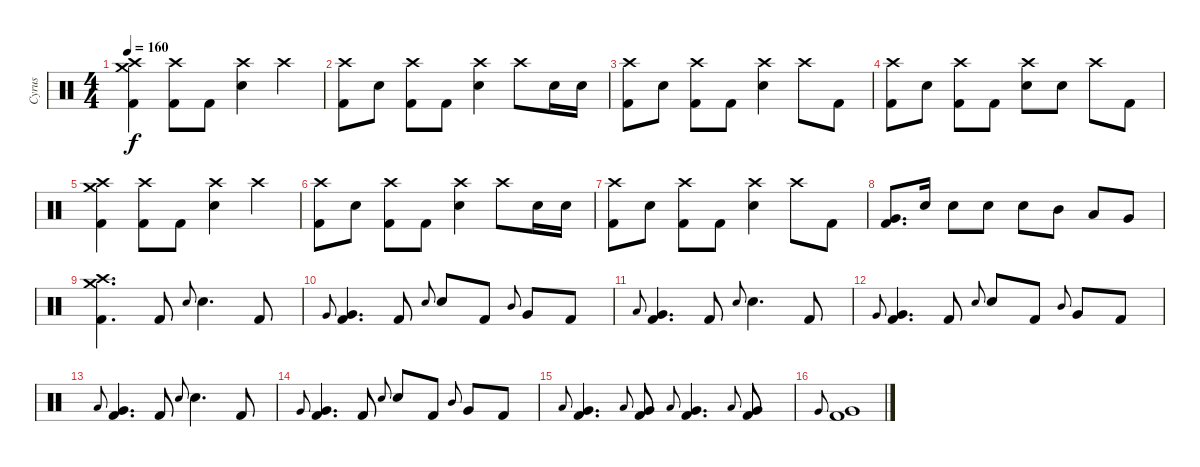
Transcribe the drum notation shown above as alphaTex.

\track ("Cyrus" "Cyrus") {instrument percussion}
\staff {score}
\articulation defaults
\ts (4 4)
\tempo 160
\clef neutral
\ks c
("Crash high (hit)" "Crash medium (hit)" "Kick (hit) 2").4{dy f} ("Crash high (hit)" "Kick (hit) 2").8 "Kick (hit) 2".8 ("Crash high (hit)" "Snare (hit) 2").4 "Crash high (hit)".4 |
("Crash high (hit)" "Kick (hit) 2").8 "Snare (hit) 2".8 ("Crash high (hit)" "Kick (hit) 2").8 "Kick (hit) 2".8 ("Crash high (hit)" "Snare (hit) 2").4 "Crash high (hit)".8 "Snare (hit) 2".16 "Snare (hit) 2".16 |
("Crash high (hit)" "Kick (hit) 2").8 "Snare (hit) 2".8 ("Crash high (hit)" "Kick (hit) 2").8 "Kick (hit) 2".8 ("Crash high (hit)" "Snare (hit) 2").4 "Crash high (hit)".8 "Kick (hit) 2".8 |
("Crash high (hit)" "Kick (hit) 2").8 "Snare (hit) 2".8 ("Crash high (hit)" "Kick (hit) 2").8 "Kick (hit) 2".8 ("Crash high (hit)" "Snare (hit) 2").8 "Snare (hit) 2".8 "Crash high (hit)".8 "Kick (hit) 2".8 |
("Crash high (hit)" "Crash medium (hit)" "Kick (hit) 2").4 ("Crash high (hit)" "Kick (hit) 2").8 "Kick (hit) 2".8 ("Crash high (hit)" "Snare (hit) 2").4 "Crash high (hit)".4 |
("Crash high (hit)" "Kick (hit) 2").8 "Snare (hit) 2".8 ("Crash high (hit)" "Kick (hit) 2").8 "Kick (hit) 2".8 ("Crash high (hit)" "Snare (hit) 2").4 "Crash high (hit)".8 "Snare (hit) 2".16 "Snare (hit) 2".16 |
("Crash high (hit)" "Kick (hit) 2").8 "Snare (hit) 2".8 ("Crash high (hit)" "Kick (hit) 2").8 "Kick (hit) 2".8 ("Crash high (hit)" "Snare (hit) 2").4 "Crash high (hit)".8 "Kick (hit) 2".8 |
("Very Low Tom (hit)" "Kick (hit) 2").8{d} "Snare (hit) 2".16 "Snare (hit) 2".8 "Snare (hit) 2".8 "Snare (hit) 2".8 "Mid Tom (hit)".8 "Low Tom (hit)".8 "Very Low Tom (hit)".8 |
("Crash high (hit)" "Crash medium (hit)" "Kick (hit) 2").4{d} "Kick (hit) 2".8 "Snare (hit) 2".8{gr onbeat} "Snare (hit) 2".4{d} "Kick (hit) 2".8 |
"Very Low Tom (hit)".8{gr onbeat} ("Very Low Tom (hit)" "Kick (hit) 2").4{d} "Kick (hit) 2".8 "Snare (hit) 2".8{gr onbeat} "Snare (hit) 2".8 "Kick (hit) 2".8 "Mid Tom (hit)".8{gr onbeat} "Very Low Tom (hit)".8 "Kick (hit) 2".8 |
"Low Tom (hit)".8{gr onbeat} ("Very Low Tom (hit)" "Kick (hit) 2").4{d} "Kick (hit) 2".8 "Snare (hit) 2".8{gr onbeat} "Snare (hit) 2".4{d} "Kick (hit) 2".8 |
"Very Low Tom (hit)".8{gr onbeat} ("Very Low Tom (hit)" "Kick (hit) 2").4{d} "Kick (hit) 2".8 "Snare (hit) 2".8{gr onbeat} "Snare (hit) 2".8 "Kick (hit) 2".8 "Mid Tom (hit)".8{gr onbeat} "Very Low Tom (hit)".8 "Kick (hit) 2".8 |
"Low Tom (hit)".8{gr onbeat} ("Very Low Tom (hit)" "Kick (hit) 2").4{d} "Kick (hit) 2".8 "Snare (hit) 2".8{gr onbeat} "Snare (hit) 2".4{d} "Kick (hit) 2".8 |
"Very Low Tom (hit)".8{gr onbeat} ("Very Low Tom (hit)" "Kick (hit) 2").4{d} "Kick (hit) 2".8 "Snare (hit) 2".8{gr onbeat} "Snare (hit) 2".8 "Kick (hit) 2".8 "Mid Tom (hit)".8{gr onbeat} "Very Low Tom (hit)".8 "Kick (hit) 2".8 |
"Low Tom (hit)".8{gr onbeat} ("Very Low Tom (hit)" "Kick (hit) 2").4{d} "Low Tom (hit)".8{gr onbeat} ("Very Low Tom (hit)" "Kick (hit) 2").8 "Low Tom (hit)".8{gr onbeat} ("Very Low Tom (hit)" "Kick (hit) 2").4{d} "Low Tom (hit)".8{gr onbeat} ("Very Low Tom (hit)" "Kick (hit) 2").8 |
"Very Low Tom (hit)".8{gr onbeat} ("Very Low Tom (hit)" "Kick (hit) 2").1
